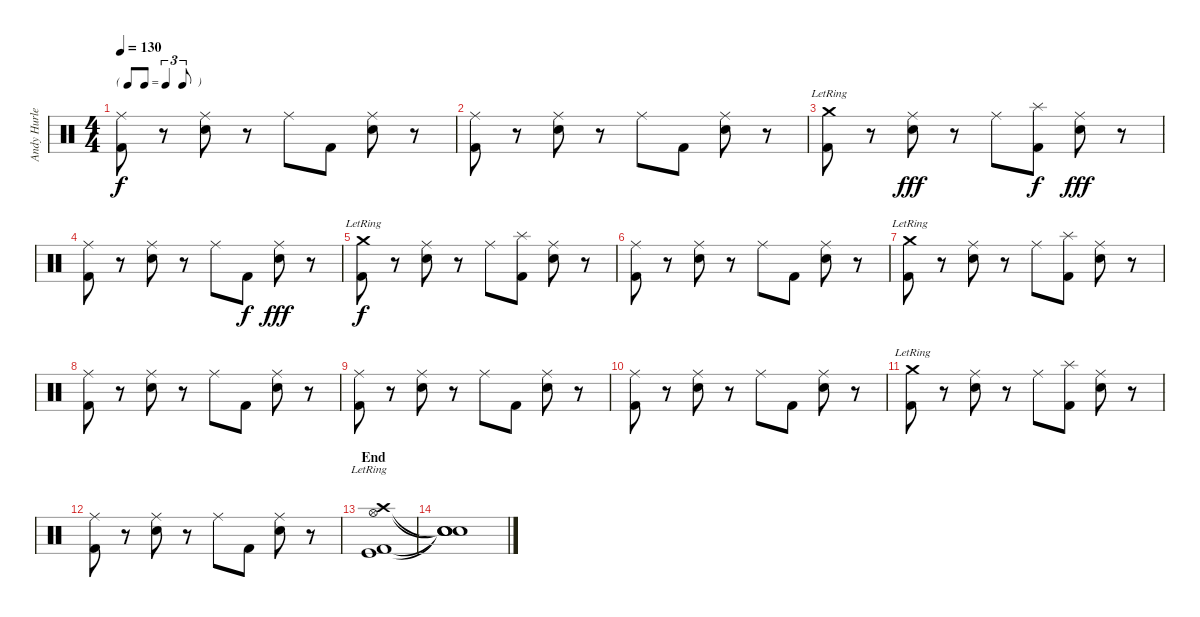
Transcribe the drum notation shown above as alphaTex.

\track ("Andy Hurley" "Andy Hurle") {instrument percussion}
\staff {score}
\articulation defaults
\ts (4 4)
\tf triplet8th
\tempo 130
\clef neutral
\ks c
("Ride (middle)" "Kick (hit) 2").8{dy f} r.8 ("Ride (middle)" "Electric Snare (hit)").8 r.8 "Ride (middle)".8 "Kick (hit) 2".8 ("Ride (middle)" "Electric Snare (hit)").8 r.8 |
("Ride (middle)" "Kick (hit) 2").8 r.8 ("Ride (middle)" "Electric Snare (hit)").8 r.8 "Ride (middle)".8 "Kick (hit) 2".8 ("Ride (middle)" "Electric Snare (hit)").8 r.8 |
("Crash medium (hit)"{lr} "Kick (hit) 2").8 r.8 ("Ride (middle)" "Electric Snare (hit)").8{dy fff} r.8 "Ride (middle)".8 ("Splash (hit)" "Kick (hit) 2").8{dy f} ("Ride (middle)" "Electric Snare (hit)").8{dy fff} r.8 |
("Ride (middle)" "Kick (hit) 2").8 r.8 ("Ride (middle)" "Electric Snare (hit)").8 r.8 "Ride (middle)".8 "Kick (hit) 2".8{dy f} ("Ride (middle)" "Electric Snare (hit)").8{dy fff} r.8 |
("Crash medium (hit)"{lr} "Kick (hit) 2").8{dy f} r.8 ("Ride (middle)" "Electric Snare (hit)").8 r.8 "Ride (middle)".8 ("Splash (hit)" "Kick (hit) 2").8 ("Ride (middle)" "Electric Snare (hit)").8 r.8 |
("Ride (middle)" "Kick (hit) 2").8 r.8 ("Ride (middle)" "Electric Snare (hit)").8 r.8 "Ride (middle)".8 "Kick (hit) 2".8 ("Ride (middle)" "Electric Snare (hit)").8 r.8 |
("Crash medium (hit)"{lr} "Kick (hit) 2").8 r.8 ("Ride (middle)" "Electric Snare (hit)").8 r.8 "Ride (middle)".8 ("Splash (hit)" "Kick (hit) 2").8 ("Ride (middle)" "Electric Snare (hit)").8 r.8 |
("Ride (middle)" "Kick (hit) 2").8 r.8 ("Ride (middle)" "Electric Snare (hit)").8 r.8 "Ride (middle)".8 "Kick (hit) 2".8 ("Ride (middle)" "Electric Snare (hit)").8 r.8 |
("Ride (middle)" "Kick (hit) 2").8 r.8 ("Ride (middle)" "Electric Snare (hit)").8 r.8 "Ride (middle)".8 "Kick (hit) 2".8 ("Ride (middle)" "Electric Snare (hit)").8 r.8 |
("Ride (middle)" "Kick (hit) 2").8 r.8 ("Ride (middle)" "Electric Snare (hit)").8 r.8 "Ride (middle)".8 "Kick (hit) 2".8 ("Ride (middle)" "Electric Snare (hit)").8 r.8 |
("Crash medium (hit)"{lr} "Kick (hit) 2").8 r.8 ("Ride (middle)" "Electric Snare (hit)").8 r.8 "Ride (middle)".8 ("Splash (hit)" "Kick (hit) 2").8 ("Ride (middle)" "Electric Snare (hit)").8 r.8 |
("Ride (middle)" "Kick (hit) 2").8 r.8 ("Ride (middle)" "Electric Snare (hit)").8 r.8 "Ride (middle)".8 "Kick (hit) 2".8 ("Ride (middle)" "Electric Snare (hit)").8 r.8 |
\section ("" "End")
("Hi-Hat (open)"{lr} "Crash high (hit)"{lr} "Kick (hit)" "Kick (hit) 2").1 |
("Snare (hit)"{t} "Snare (hit)"{t} "Snare (hit)"{t} "Snare (hit)"{t}).1
